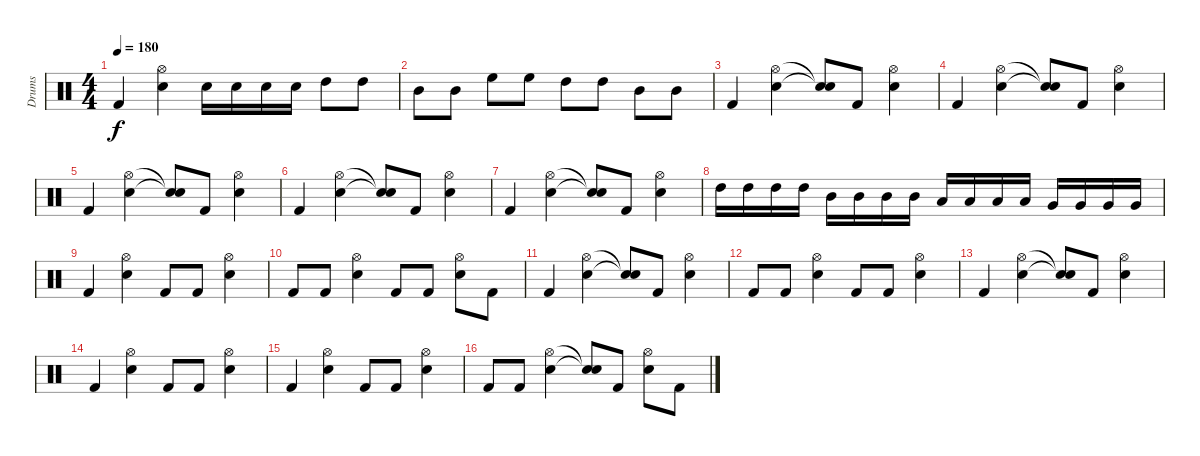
\track ("Drums" "Drums") {instrument percussion}
\staff {score}
\articulation defaults
\ts (4 4)
\tempo 180
\clef neutral
\ks c "Kick (hit) 2".4{dy f}
("Hi-Hat (open)" "Electric Snare (hit)").4 "Electric Snare (hit)".16 "Electric Snare (hit)".16 "Electric Snare (hit)".16 "Electric Snare (hit)".16 "High Tom (hit)".8 "High Tom (hit)".8 |
"Mid Tom (hit)".8 "Mid Tom (hit)".8 "High Floor Tom (hit)".8 "High Floor Tom (hit)".8 "High Tom (hit)".8 "High Tom (hit)".8 "Mid Tom (hit)".8 "Mid Tom (hit)".8 |
"Kick (hit) 2".4 ("Hi-Hat (open)" "Electric Snare (hit)").4 ("Snare (hit)"{t} "Snare (hit)"{t}).8 "Kick (hit) 2".8 ("Hi-Hat (open)" "Electric Snare (hit)").4 |
"Kick (hit) 2".4 ("Hi-Hat (open)" "Electric Snare (hit)").4 ("Snare (hit)"{t} "Snare (hit)"{t}).8 "Kick (hit) 2".8 ("Hi-Hat (open)" "Electric Snare (hit)").4 |
"Kick (hit) 2".4 ("Hi-Hat (open)" "Electric Snare (hit)").4 ("Snare (hit)"{t} "Snare (hit)"{t}).8 "Kick (hit) 2".8 ("Hi-Hat (open)" "Electric Snare (hit)").4 |
"Kick (hit) 2".4 ("Hi-Hat (open)" "Electric Snare (hit)").4 ("Snare (hit)"{t} "Snare (hit)"{t}).8 "Kick (hit) 2".8 ("Hi-Hat (open)" "Electric Snare (hit)").4 |
"Kick (hit) 2".4 ("Hi-Hat (open)" "Electric Snare (hit)").4 ("Snare (hit)"{t} "Snare (hit)"{t}).8 "Kick (hit) 2".8 ("Hi-Hat (open)" "Electric Snare (hit)").4 |
"High Tom (hit)".16 "High Tom (hit)".16 "High Tom (hit)".16 "High Tom (hit)".16 "Mid Tom (hit)".16 "Mid Tom (hit)".16 "Mid Tom (hit)".16 "Mid Tom (hit)".16 "Low Tom (hit)".16 "Low Tom (hit)".16 "Low Tom (hit)".16 "Low Tom (hit)".16 "Very Low Tom (hit)".16 "Very Low Tom (hit)".16 "Very Low Tom (hit)".16 "Very Low Tom (hit)".16 |
"Kick (hit) 2".4 ("Hi-Hat (open)" "Electric Snare (hit)").4 "Kick (hit) 2".8 "Kick (hit) 2".8 ("Hi-Hat (open)" "Electric Snare (hit)").4 |
"Kick (hit) 2".8 "Kick (hit) 2".8 ("Hi-Hat (open)" "Electric Snare (hit)").4 "Kick (hit) 2".8 "Kick (hit) 2".8 ("Hi-Hat (open)" "Electric Snare (hit)").8 "Kick (hit) 2".8 |
"Kick (hit) 2".4 ("Hi-Hat (open)" "Electric Snare (hit)").4 ("Snare (hit)"{t} "Snare (hit)"{t}).8 "Kick (hit) 2".8 ("Hi-Hat (open)" "Electric Snare (hit)").4 |
"Kick (hit) 2".8 "Kick (hit) 2".8 ("Hi-Hat (open)" "Electric Snare (hit)").4 "Kick (hit) 2".8 "Kick (hit) 2".8 ("Hi-Hat (open)" "Electric Snare (hit)").4 |
"Kick (hit) 2".4 ("Hi-Hat (open)" "Electric Snare (hit)").4 ("Snare (hit)"{t} "Snare (hit)"{t}).8 "Kick (hit) 2".8 ("Hi-Hat (open)" "Electric Snare (hit)").4 |
"Kick (hit) 2".4 ("Hi-Hat (open)" "Electric Snare (hit)").4 "Kick (hit) 2".8 "Kick (hit) 2".8 ("Hi-Hat (open)" "Electric Snare (hit)").4 |
"Kick (hit) 2".4 ("Hi-Hat (open)" "Electric Snare (hit)").4 "Kick (hit) 2".8 "Kick (hit) 2".8 ("Hi-Hat (open)" "Electric Snare (hit)").4 |
"Kick (hit) 2".8 "Kick (hit) 2".8 ("Hi-Hat (open)" "Electric Snare (hit)").4 ("Snare (hit)"{t} "Snare (hit)"{t}).8 "Kick (hit) 2".8 ("Hi-Hat (open)" "Electric Snare (hit)").8 "Kick (hit) 2".8
